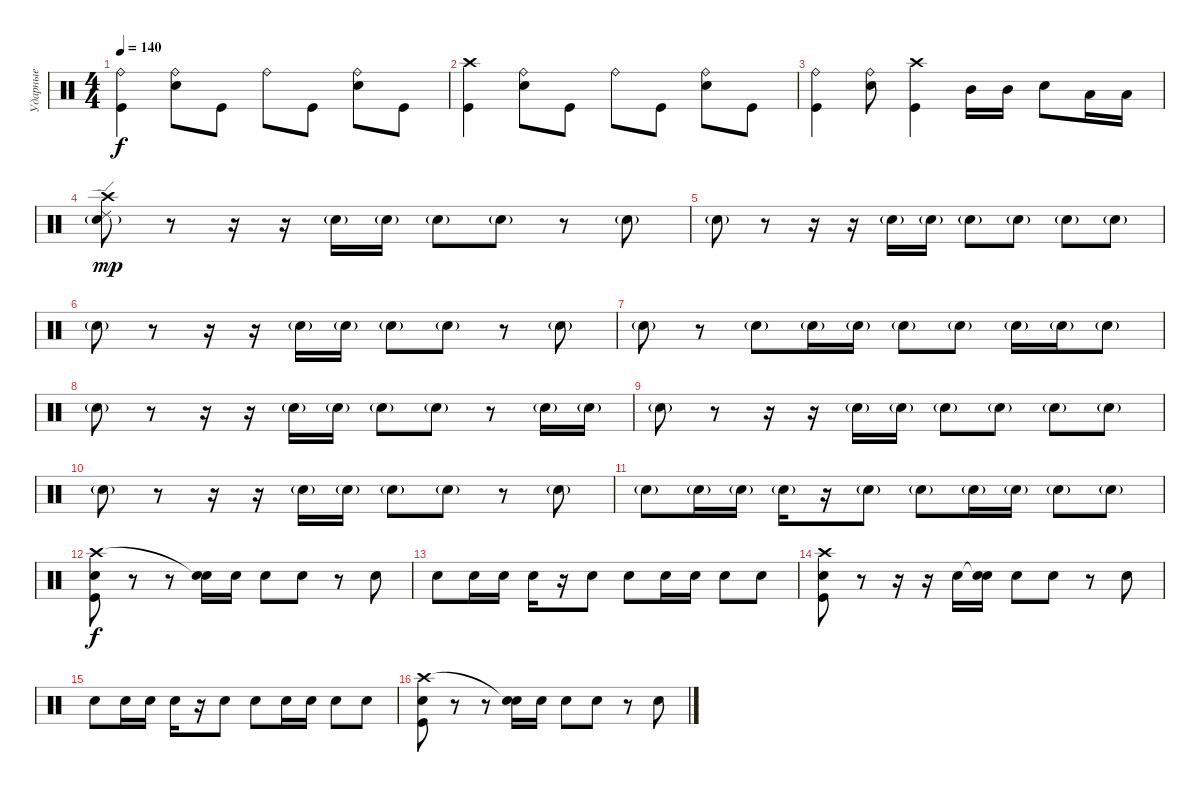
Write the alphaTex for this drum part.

\track ("Ударные" "Ударные") {instrument percussion}
\staff {score}
\articulation defaults
\ts (4 4)
\tempo 140
\clef neutral
\ks c
("Ride (bell)" "Kick (hit)").4{dy f} ("Ride (bell)" "Electric Snare (hit)").8 "Kick (hit)".8 "Ride (bell)".8 "Kick (hit)".8 ("Ride (bell)" "Electric Snare (hit)").8 "Kick (hit)".8 |
("Crash high (hit)" "Kick (hit)").4 ("Ride (bell)" "Electric Snare (hit)").8 "Kick (hit)".8 "Ride (bell)".8 "Kick (hit)".8 ("Ride (bell)" "Electric Snare (hit)").8 "Kick (hit)".8 |
("Ride (bell)" "Kick (hit)").4 ("Ride (bell)" "Electric Snare (hit)").8 ("Crash high (hit)" "Kick (hit)").4 "Mid Tom (hit)".16 "Mid Tom (hit)".16 "Electric Snare (hit)".8 "Low Tom (hit)".16 "Low Tom (hit)".16 |
("Ride (edge) 2" "Electric Snare (hit)"{g} "Crash high (hit)").8{dy mp} r.8 r.16 r.16 "Electric Snare (hit)"{g}.16 "Electric Snare (hit)"{g}.16 "Electric Snare (hit)"{g}.8 "Electric Snare (hit)"{g}.8 r.8 "Electric Snare (hit)"{g}.8 |
"Electric Snare (hit)"{g}.8 r.8 r.16 r.16 "Electric Snare (hit)"{g}.16 "Electric Snare (hit)"{g}.16 "Electric Snare (hit)"{g}.8 "Electric Snare (hit)"{g}.8 "Electric Snare (hit)"{g}.8 "Electric Snare (hit)"{g}.8 |
"Electric Snare (hit)"{g}.8 r.8 r.16 r.16 "Electric Snare (hit)"{g}.16 "Electric Snare (hit)"{g}.16 "Electric Snare (hit)"{g}.8 "Electric Snare (hit)"{g}.8 r.8 "Electric Snare (hit)"{g}.8 |
"Electric Snare (hit)"{g}.8 r.8 "Electric Snare (hit)"{g}.8 "Electric Snare (hit)"{g}.16 "Electric Snare (hit)"{g}.16 "Electric Snare (hit)"{g}.8 "Electric Snare (hit)"{g}.8 "Electric Snare (hit)"{g}.16 "Electric Snare (hit)"{g}.16 "Electric Snare (hit)"{g}.8 |
"Electric Snare (hit)"{g}.8 r.8 r.16 r.16 "Electric Snare (hit)"{g}.16 "Electric Snare (hit)"{g}.16 "Electric Snare (hit)"{g}.8 "Electric Snare (hit)"{g}.8 r.8 "Electric Snare (hit)"{g}.16 "Electric Snare (hit)"{g}.16 |
"Electric Snare (hit)"{g}.8 r.8 r.16 r.16 "Electric Snare (hit)"{g}.16 "Electric Snare (hit)"{g}.16 "Electric Snare (hit)"{g}.8 "Electric Snare (hit)"{g}.8 "Electric Snare (hit)"{g}.8 "Electric Snare (hit)"{g}.8 |
"Electric Snare (hit)"{g}.8 r.8 r.16 r.16 "Electric Snare (hit)"{g}.16 "Electric Snare (hit)"{g}.16 "Electric Snare (hit)"{g}.8 "Electric Snare (hit)"{g}.8 r.8 "Electric Snare (hit)"{g}.8 |
"Electric Snare (hit)"{g}.8 "Electric Snare (hit)"{g}.16 "Electric Snare (hit)"{g}.16 "Electric Snare (hit)"{g}.16 r.16 "Electric Snare (hit)"{g}.8 "Electric Snare (hit)"{g}.8 "Electric Snare (hit)"{g}.16 "Electric Snare (hit)"{g}.16 "Electric Snare (hit)"{g}.8 "Electric Snare (hit)"{g}.8 |
("Crash high (hit)" "Electric Snare (hit)" "Kick (hit)").8{dy f} r.8 r.8 ("Snare (hit)"{t} "Electric Snare (hit)").16 "Electric Snare (hit)".16 "Electric Snare (hit)".8 "Electric Snare (hit)".8 r.8 "Electric Snare (hit)".8 |
"Electric Snare (hit)".8 "Electric Snare (hit)".16 "Electric Snare (hit)".16 "Electric Snare (hit)".16 r.16 "Electric Snare (hit)".8 "Electric Snare (hit)".8 "Electric Snare (hit)".16 "Electric Snare (hit)".16 "Electric Snare (hit)".8 "Electric Snare (hit)".8 |
("Crash high (hit)" "Electric Snare (hit)" "Kick (hit)").8 r.8 r.16 r.16 "Electric Snare (hit)".16 ("Snare (hit)"{t} "Electric Snare (hit)").16 "Electric Snare (hit)".8 "Electric Snare (hit)".8 r.8 "Electric Snare (hit)".8 |
"Electric Snare (hit)".8 "Electric Snare (hit)".16 "Electric Snare (hit)".16 "Electric Snare (hit)".16 r.16 "Electric Snare (hit)".8 "Electric Snare (hit)".8 "Electric Snare (hit)".16 "Electric Snare (hit)".16 "Electric Snare (hit)".8 "Electric Snare (hit)".8 |
("Crash high (hit)" "Electric Snare (hit)" "Kick (hit)").8 r.8 r.8 ("Snare (hit)"{t} "Electric Snare (hit)").16 "Electric Snare (hit)".16 "Electric Snare (hit)".8 "Electric Snare (hit)".8 r.8 "Electric Snare (hit)".8
